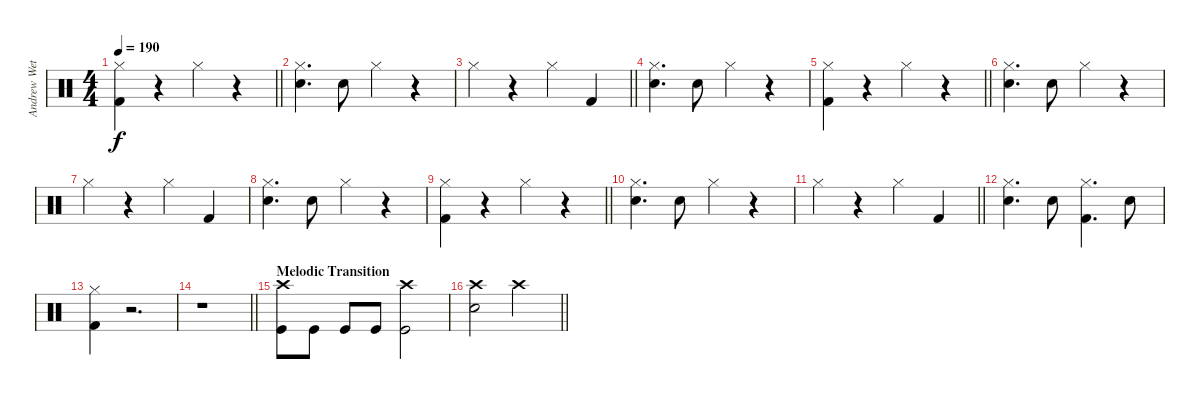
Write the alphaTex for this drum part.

\track ("Andrew Wetzel" "Andrew Wet") {instrument percussion}
\staff {score}
\articulation defaults
\ts (4 4)
\tempo 190
\clef neutral
\barLineRight lightlight
\ks c
("Hi-Hat (closed)" "Kick (hit) 2").4{dy f} r.4 "Hi-Hat (closed)".4 r.4 |
("Hi-Hat (closed)" "Snare (hit) 2").4{d} "Snare (hit) 2".8 "Hi-Hat (closed)".4 r.4 |
\barLineRight lightlight "Hi-Hat (closed)".4
r.4 "Hi-Hat (closed)".4 "Kick (hit) 2".4 |
("Hi-Hat (closed)" "Snare (hit) 2").4{d volume 7} "Snare (hit) 2".8 "Hi-Hat (closed)".4 r.4 |
\barLineRight lightlight
("Hi-Hat (closed)" "Kick (hit) 2").4 r.4 "Hi-Hat (closed)".4 r.4 |
("Hi-Hat (closed)" "Snare (hit) 2").4{d} "Snare (hit) 2".8 "Hi-Hat (closed)".4 r.4 |
"Hi-Hat (closed)".4 r.4 "Hi-Hat (closed)".4 "Kick (hit) 2".4 |
("Hi-Hat (closed)" "Snare (hit) 2").4{d} "Snare (hit) 2".8 "Hi-Hat (closed)".4 r.4 |
\barLineRight lightlight
("Hi-Hat (closed)" "Kick (hit) 2").4 r.4 "Hi-Hat (closed)".4 r.4 |
("Hi-Hat (closed)" "Snare (hit) 2").4{d} "Snare (hit) 2".8 "Hi-Hat (closed)".4 r.4 |
\barLineRight lightlight "Hi-Hat (closed)".4
r.4 "Hi-Hat (closed)".4 "Kick (hit) 2".4 |
("Hi-Hat (closed)" "Snare (hit) 2").4{d} "Snare (hit) 2".8 ("Hi-Hat (closed)" "Kick (hit) 2").4{d} "Snare (hit) 2".8 |
("Hi-Hat (closed)" "Kick (hit) 2").4 r.2{d} |
\barLineRight lightlight
r.1 |
\section ("" "Melodic Transition")
("Crash high (hit)" "Kick (hit)").8{volume 13} "Kick (hit)".8 "Kick (hit)".8 "Kick (hit)".8 ("Crash high (hit)" "Kick (hit)").2 |
\barLineRight lightlight
("Crash high (hit)" "Snare (hit) 2").2 "Crash high (hit)".2
